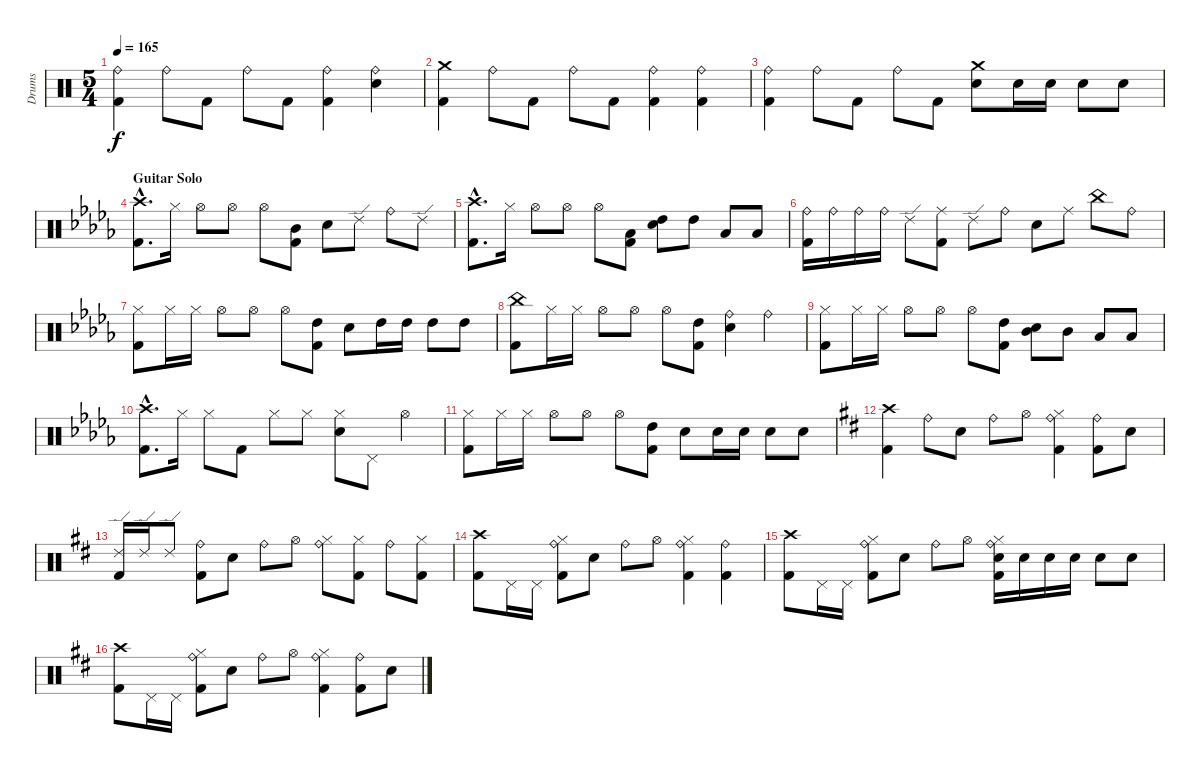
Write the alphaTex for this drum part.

\track ("Drums" "Drums") {instrument percussion}
\staff {score}
\articulation defaults
\ts (5 4)
\tempo 165
\clef neutral
\ks c
("Ride (bell)" "Kick (hit) 2").4{dy f} "Ride (bell)".8 "Kick (hit) 2".8 "Ride (bell)".8 "Kick (hit) 2".8 ("Ride (bell)" "Kick (hit) 2").4 ("Ride (bell)" "Electric Snare (hit)").4 |
("Kick (hit) 2" "Crash medium (hit)").4 "Ride (bell)".8 "Kick (hit) 2".8 "Ride (bell)".8 "Kick (hit) 2".8 ("Ride (bell)" "Kick (hit) 2").4 ("Ride (bell)" "Kick (hit) 2").4 |
("Ride (bell)" "Kick (hit) 2").4 "Ride (bell)".8 "Kick (hit) 2".8 "Ride (bell)".8 "Kick (hit) 2".8 ("Electric Snare (hit)" "Crash medium (hit)").8 "Electric Snare (hit)".16 "Electric Snare (hit)".16 "Electric Snare (hit)".8 "Electric Snare (hit)".8 |
\section ("" "Guitar Solo")
\ks db
("Kick (hit) 2"{hac} "Crash high (hit)"{hac}).8{d} "Hi-Hat (closed)".16 "Hi-Hat (open)".8 "Hi-Hat (open)".8 "Hi-Hat (open)".8 ("Kick (hit) 2" "Mid Tom (hit)").8 "Electric Snare (hit)".8 "Ride (edge) 2".8 "Ride (bell)".8 "Ride (edge) 2".8 |
("Kick (hit) 2"{hac} "Crash high (hit)"{hac}).8{d} "Hi-Hat (closed)".16 "Hi-Hat (open)".8 "Hi-Hat (open)".8 "Hi-Hat (open)".8 ("Kick (hit) 2" "Low Tom (hit)").8 ("Electric Snare (hit)" "High Tom (hit)").8 "High Tom (hit)".8 "Low Tom (hit)".8 "Low Tom (hit)".8 |
("Kick (hit) 2" "Ride (bell)").16 "Ride (bell)".16 "Ride (bell)".16 "Ride (bell)".16 "Ride (edge) 2".8 ("Kick (hit) 2" "Ride (middle)").8 "Ride (edge) 2".8 "Ride (bell)".8 "Electric Snare (hit)".8 "Ride (middle)".8 "China (hit)".8 "Ride (bell)".8 |
("Kick (hit) 2" "Hi-Hat (closed)").8 "Hi-Hat (closed)".16 "Hi-Hat (closed)".16 "Hi-Hat (open)".8 "Hi-Hat (open)".8 "Hi-Hat (open)".8 ("Kick (hit) 2" "High Tom (hit)").8 "Electric Snare (hit)".8 "High Tom (hit)".16 "High Tom (hit)".16 "High Tom (hit)".8 "High Tom (hit)".8 |
("Kick (hit) 2" "China (hit)").8 "Hi-Hat (closed)".16 "Hi-Hat (closed)".16 "Hi-Hat (open)".8 "Hi-Hat (open)".8 "Hi-Hat (open)".8 ("Kick (hit) 2" "High Tom (hit)").8 ("Electric Snare (hit)" "Ride (bell)").4 "Ride (bell)".4 |
("Kick (hit) 2" "Hi-Hat (closed)").8 "Hi-Hat (closed)".16 "Hi-Hat (closed)".16 "Hi-Hat (open)".8 "Hi-Hat (open)".8 "Hi-Hat (open)".8 ("Kick (hit) 2" "High Tom (hit)").8 ("Electric Snare (hit)" "Mid Tom (hit)").8 "Mid Tom (hit)".8 "Low Tom (hit)".8 "Low Tom (hit)".8 |
("Kick (hit) 2"{hac} "Crash high (hit)"{hac}).8{d} "Hi-Hat (closed)".16 "Hi-Hat (closed)".8 "Kick (hit) 2".8 "Hi-Hat (closed)".8 "Hi-Hat (closed)".8 ("Electric Snare (hit)" "Hi-Hat (closed)").8 "Pedal Hi-Hat (hit)".8 "Hi-Hat (open)".4 |
("Kick (hit) 2" "Hi-Hat (closed)").8 "Hi-Hat (closed)".16 "Hi-Hat (closed)".16 "Hi-Hat (open)".8 "Hi-Hat (open)".8 "Hi-Hat (open)".8 ("Kick (hit) 2" "High Tom (hit)").8 "Electric Snare (hit)".8 "Electric Snare (hit)".16 "Electric Snare (hit)".16 "Electric Snare (hit)".8 "Electric Snare (hit)".8 |
\ks d
("Kick (hit) 2" "Crash high (hit)").4 "Ride (bell)".8 "Electric Snare (hit)".8 "Ride (bell)".8 "Hi-Hat (open)".8 ("Hi-Hat (closed)" "Kick (hit) 2" "Ride (bell)").4 ("Kick (hit) 2" "Ride (bell)").8 "Electric Snare (hit)".8 |
("Ride (edge) 2" "Kick (hit) 2").16 "Ride (edge) 2".16 "Ride (edge) 2".8 ("Kick (hit) 2" "Ride (bell)").8 "Electric Snare (hit)".8 "Ride (bell)".8 "Hi-Hat (open)".8 ("Hi-Hat (closed)" "Ride (bell)").8 ("Kick (hit) 2" "Hi-Hat (closed)").8 "Ride (bell)".8 ("Kick (hit) 2" "Hi-Hat (closed)").8 |
("Crash high (hit)" "Kick (hit) 2").8 "Pedal Hi-Hat (hit)".16 "Pedal Hi-Hat (hit)".16 ("Kick (hit) 2" "Ride (bell)" "Hi-Hat (closed)").8 "Electric Snare (hit)".8 "Ride (bell)".8 "Hi-Hat (open)".8 ("Kick (hit) 2" "Hi-Hat (closed)" "Ride (bell)").4 ("Kick (hit) 2" "Ride (bell)").4 |
("Crash high (hit)" "Kick (hit) 2").8 "Pedal Hi-Hat (hit)".16 "Pedal Hi-Hat (hit)".16 ("Kick (hit) 2" "Ride (bell)" "Hi-Hat (closed)").8 "Electric Snare (hit)".8 "Ride (bell)".8 "Hi-Hat (open)".8 ("Kick (hit) 2" "Hi-Hat (closed)" "Ride (bell)" "Electric Snare (hit)").16 "Electric Snare (hit)".16 "Electric Snare (hit)".16 "Electric Snare (hit)".16 "Electric Snare (hit)".8 "Electric Snare (hit)".8 |
("Crash high (hit)" "Kick (hit) 2").8 "Pedal Hi-Hat (hit)".16 "Pedal Hi-Hat (hit)".16 ("Kick (hit) 2" "Ride (bell)" "Hi-Hat (closed)").8 "Electric Snare (hit)".8 "Ride (bell)".8 "Hi-Hat (open)".8 ("Kick (hit) 2" "Hi-Hat (closed)" "Ride (bell)").4 ("Kick (hit) 2" "Ride (bell)").8 "Electric Snare (hit)".8
